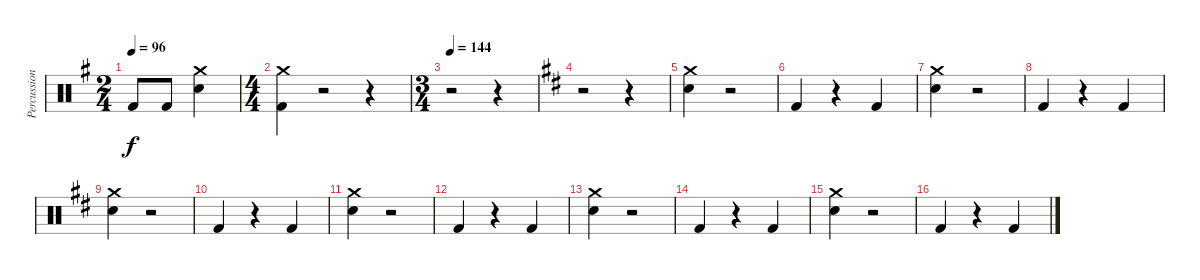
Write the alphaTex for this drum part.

\track ("Percussion" "Percussion") {instrument percussion}
\staff {score}
\articulation defaults
\ts (2 4)
\tempo 96
\clef neutral
\ks g "Kick (hit) 2".8{dy f} "Kick (hit) 2".8
("Crash medium (hit)" "Snare (hit) 2").4 |
\ts (4 4)
("Crash medium (hit)" "Kick (hit) 2").4 r.2 r.4 |
\ts (3 4)
\tempo 144
r.2 r.4 |
\ks d
r.2 r.4 |
("Crash medium (hit)" "Snare (hit) 2").4 r.2 |
"Kick (hit) 2".4 r.4 "Kick (hit) 2".4 |
("Crash medium (hit)" "Snare (hit) 2").4 r.2 |
"Kick (hit) 2".4 r.4 "Kick (hit) 2".4 |
("Crash medium (hit)" "Snare (hit) 2").4 r.2 |
"Kick (hit) 2".4 r.4 "Kick (hit) 2".4 |
("Crash medium (hit)" "Snare (hit) 2").4 r.2 |
"Kick (hit) 2".4 r.4 "Kick (hit) 2".4 |
("Crash medium (hit)" "Snare (hit) 2").4 r.2 |
"Kick (hit) 2".4 r.4 "Kick (hit) 2".4 |
("Crash medium (hit)" "Snare (hit) 2").4 r.2 |
"Kick (hit) 2".4 r.4 "Kick (hit) 2".4
